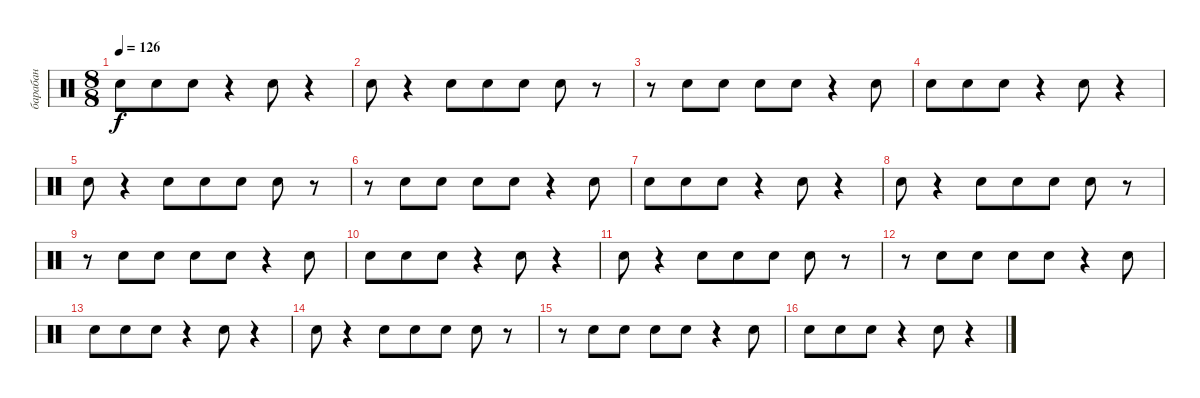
\track ("барабан" "барабан") {instrument percussion}
\staff {score}
\articulation defaults
\ts (8 8)
\tempo 126
\clef neutral
\ks c "Electric Snare (hit)".8{dy f} "Electric Snare (hit)".8 "Electric Snare (hit)".8
r.4 "Electric Snare (hit)".8 r.4 |
"Electric Snare (hit)".8 r.4 "Electric Snare (hit)".8 "Electric Snare (hit)".8 "Electric Snare (hit)".8 "Electric Snare (hit)".8 r.8 |
r.8 "Electric Snare (hit)".8 "Electric Snare (hit)".8 "Electric Snare (hit)".8 "Electric Snare (hit)".8 r.4 "Electric Snare (hit)".8 |
"Electric Snare (hit)".8 "Electric Snare (hit)".8 "Electric Snare (hit)".8 r.4 "Electric Snare (hit)".8 r.4 |
"Electric Snare (hit)".8 r.4 "Electric Snare (hit)".8 "Electric Snare (hit)".8 "Electric Snare (hit)".8 "Electric Snare (hit)".8 r.8 |
r.8 "Electric Snare (hit)".8 "Electric Snare (hit)".8 "Electric Snare (hit)".8 "Electric Snare (hit)".8 r.4 "Electric Snare (hit)".8 |
"Electric Snare (hit)".8 "Electric Snare (hit)".8 "Electric Snare (hit)".8 r.4 "Electric Snare (hit)".8 r.4 |
"Electric Snare (hit)".8 r.4 "Electric Snare (hit)".8 "Electric Snare (hit)".8 "Electric Snare (hit)".8 "Electric Snare (hit)".8 r.8 |
r.8 "Electric Snare (hit)".8 "Electric Snare (hit)".8 "Electric Snare (hit)".8 "Electric Snare (hit)".8 r.4 "Electric Snare (hit)".8 |
"Electric Snare (hit)".8 "Electric Snare (hit)".8 "Electric Snare (hit)".8 r.4 "Electric Snare (hit)".8 r.4 |
"Electric Snare (hit)".8 r.4 "Electric Snare (hit)".8 "Electric Snare (hit)".8 "Electric Snare (hit)".8 "Electric Snare (hit)".8 r.8 |
r.8 "Electric Snare (hit)".8 "Electric Snare (hit)".8 "Electric Snare (hit)".8 "Electric Snare (hit)".8 r.4 "Electric Snare (hit)".8 |
"Electric Snare (hit)".8 "Electric Snare (hit)".8 "Electric Snare (hit)".8 r.4 "Electric Snare (hit)".8 r.4 |
"Electric Snare (hit)".8 r.4 "Electric Snare (hit)".8 "Electric Snare (hit)".8 "Electric Snare (hit)".8 "Electric Snare (hit)".8 r.8 |
r.8 "Electric Snare (hit)".8 "Electric Snare (hit)".8 "Electric Snare (hit)".8 "Electric Snare (hit)".8 r.4 "Electric Snare (hit)".8 |
"Electric Snare (hit)".8 "Electric Snare (hit)".8 "Electric Snare (hit)".8 r.4 "Electric Snare (hit)".8 r.4
